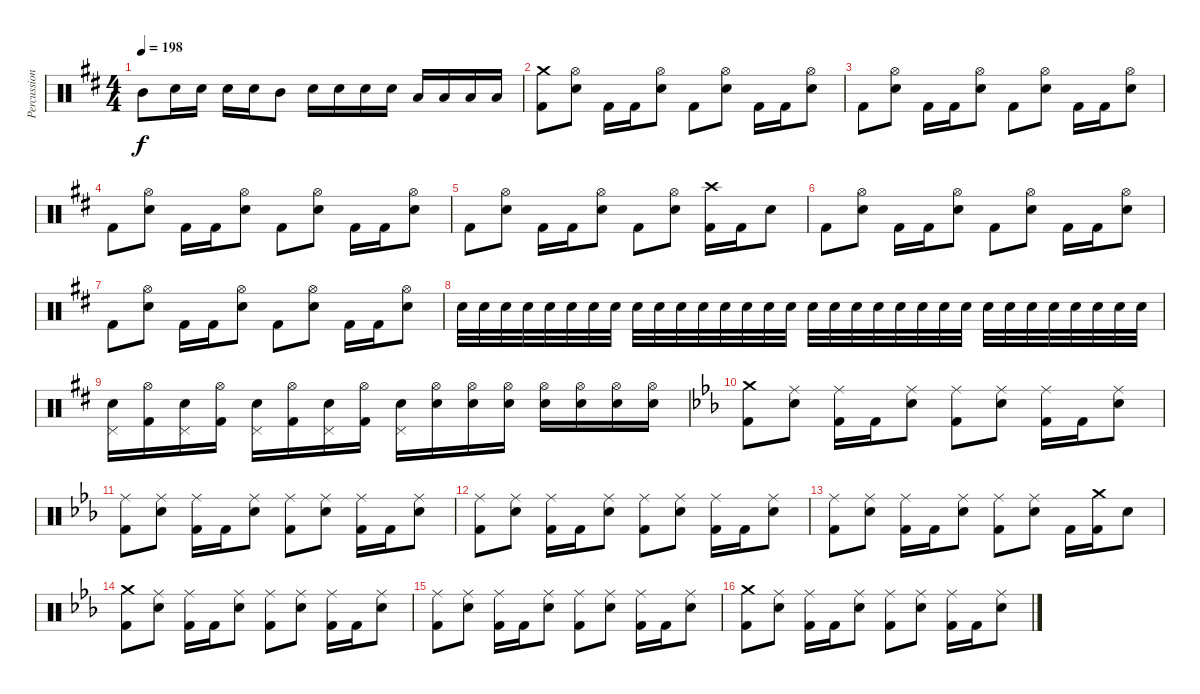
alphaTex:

\track ("Percussion" "Percussion") {instrument percussion}
\staff {score}
\articulation defaults
\ts (4 4)
\tempo 198
\clef neutral
\ks bminor "Mid Tom (hit)".8{dy f} "Snare (hit) 2".16 "Snare (hit) 2".16 "Snare (hit) 2".16 "Snare (hit) 2".16 "Mid Tom (hit)".8 "Snare (hit) 2".16 "Snare (hit) 2".16 "Snare (hit) 2".16 "Snare (hit) 2".16 "Low Tom (hit)".16 "Low Tom (hit)".16 "Low Tom (hit)".16 "Low Tom (hit)".16
|
("Crash medium (hit)" "Kick (hit) 2").8 ("Hi-Hat (open)" "Snare (hit) 2").8 "Kick (hit) 2".16 "Kick (hit) 2".16 ("Hi-Hat (open)" "Snare (hit) 2").8 "Kick (hit) 2".8 ("Hi-Hat (open)" "Snare (hit) 2").8 "Kick (hit) 2".16 "Kick (hit) 2".16 ("Hi-Hat (open)" "Snare (hit) 2").8 |
"Kick (hit) 2".8 ("Hi-Hat (open)" "Snare (hit) 2").8 "Kick (hit) 2".16 "Kick (hit) 2".16 ("Hi-Hat (open)" "Snare (hit) 2").8 "Kick (hit) 2".8 ("Hi-Hat (open)" "Snare (hit) 2").8 "Kick (hit) 2".16 "Kick (hit) 2".16 ("Hi-Hat (open)" "Snare (hit) 2").8 |
"Kick (hit) 2".8 ("Hi-Hat (open)" "Snare (hit) 2").8 "Kick (hit) 2".16 "Kick (hit) 2".16 ("Hi-Hat (open)" "Snare (hit) 2").8 "Kick (hit) 2".8 ("Hi-Hat (open)" "Snare (hit) 2").8 "Kick (hit) 2".16 "Kick (hit) 2".16 ("Hi-Hat (open)" "Snare (hit) 2").8 |
"Kick (hit) 2".8 ("Hi-Hat (open)" "Snare (hit) 2").8 "Kick (hit) 2".16 "Kick (hit) 2".16 ("Hi-Hat (open)" "Snare (hit) 2").8 "Kick (hit) 2".8 ("Hi-Hat (open)" "Snare (hit) 2").8 ("Crash high (hit)" "Kick (hit) 2").16 "Kick (hit) 2".16 "Snare (hit) 2".8 |
"Kick (hit) 2".8 ("Hi-Hat (open)" "Snare (hit) 2").8 "Kick (hit) 2".16 "Kick (hit) 2".16 ("Hi-Hat (open)" "Snare (hit) 2").8 "Kick (hit) 2".8 ("Hi-Hat (open)" "Snare (hit) 2").8 "Kick (hit) 2".16 "Kick (hit) 2".16 ("Hi-Hat (open)" "Snare (hit) 2").8 |
"Kick (hit) 2".8 ("Hi-Hat (open)" "Snare (hit) 2").8 "Kick (hit) 2".16 "Kick (hit) 2".16 ("Hi-Hat (open)" "Snare (hit) 2").8 "Kick (hit) 2".8 ("Hi-Hat (open)" "Snare (hit) 2").8 "Kick (hit) 2".16 "Kick (hit) 2".16 ("Hi-Hat (open)" "Snare (hit) 2").8 |
"Snare (hit) 2".32 "Snare (hit) 2".32 "Snare (hit) 2".32 "Snare (hit) 2".32 "Snare (hit) 2".32 "Snare (hit) 2".32 "Snare (hit) 2".32 "Snare (hit) 2".32 "Snare (hit) 2".32 "Snare (hit) 2".32 "Snare (hit) 2".32 "Snare (hit) 2".32 "Snare (hit) 2".32 "Snare (hit) 2".32 "Snare (hit) 2".32 "Snare (hit) 2".32 "Snare (hit) 2".32 "Snare (hit) 2".32 "Snare (hit) 2".32 "Snare (hit) 2".32 "Snare (hit) 2".32 "Snare (hit) 2".32 "Snare (hit) 2".32 "Snare (hit) 2".32 "Snare (hit) 2".32 "Snare (hit) 2".32 "Snare (hit) 2".32 "Snare (hit) 2".32 "Snare (hit) 2".32 "Snare (hit) 2".32 "Snare (hit) 2".32 "Snare (hit) 2".32 |
("Pedal Hi-Hat (hit)" "Snare (hit) 2").16 ("Hi-Hat (open)" "Kick (hit) 2").16 ("Pedal Hi-Hat (hit)" "Snare (hit) 2").16 ("Hi-Hat (open)" "Kick (hit) 2").16 ("Pedal Hi-Hat (hit)" "Snare (hit) 2").16 ("Hi-Hat (open)" "Kick (hit) 2").16 ("Pedal Hi-Hat (hit)" "Snare (hit) 2").16 ("Hi-Hat (open)" "Kick (hit) 2").16 ("Pedal Hi-Hat (hit)" "Snare (hit) 2").16 ("Hi-Hat (open)" "Snare (hit) 2").16 ("Hi-Hat (open)" "Snare (hit) 2").16 ("Hi-Hat (open)" "Snare (hit) 2").16 ("Hi-Hat (open)" "Snare (hit) 2").16 ("Hi-Hat (open)" "Snare (hit) 2").16 ("Hi-Hat (open)" "Snare (hit) 2").16 ("Hi-Hat (open)" "Snare (hit) 2").16 |
\ks cminor
("Crash medium (hit)" "Kick (hit) 2").8 ("Ride (middle)" "Snare (hit) 2").8 ("Ride (middle)" "Kick (hit) 2").16 "Kick (hit) 2".16 ("Ride (middle)" "Snare (hit) 2").8 ("Ride (middle)" "Kick (hit) 2").8 ("Ride (middle)" "Snare (hit) 2").8 ("Ride (middle)" "Kick (hit) 2").16 "Kick (hit) 2".16 ("Ride (middle)" "Snare (hit) 2").8 |
("Ride (middle)" "Kick (hit) 2").8 ("Ride (middle)" "Snare (hit) 2").8 ("Ride (middle)" "Kick (hit) 2").16 "Kick (hit) 2".16 ("Ride (middle)" "Snare (hit) 2").8 ("Ride (middle)" "Kick (hit) 2").8 ("Ride (middle)" "Snare (hit) 2").8 ("Ride (middle)" "Kick (hit) 2").16 "Kick (hit) 2".16 ("Ride (middle)" "Snare (hit) 2").8 |
("Ride (middle)" "Kick (hit) 2").8 ("Ride (middle)" "Snare (hit) 2").8 ("Ride (middle)" "Kick (hit) 2").16 "Kick (hit) 2".16 ("Ride (middle)" "Snare (hit) 2").8 ("Ride (middle)" "Kick (hit) 2").8 ("Ride (middle)" "Snare (hit) 2").8 ("Ride (middle)" "Kick (hit) 2").16 "Kick (hit) 2".16 ("Ride (middle)" "Snare (hit) 2").8 |
("Ride (middle)" "Kick (hit) 2").8 ("Ride (middle)" "Snare (hit) 2").8 ("Ride (middle)" "Kick (hit) 2").16 "Kick (hit) 2".16 ("Ride (middle)" "Snare (hit) 2").8 ("Ride (middle)" "Kick (hit) 2").8 ("Ride (middle)" "Snare (hit) 2").8 "Kick (hit) 2".16 ("Crash medium (hit)" "Kick (hit) 2").16 "Snare (hit) 2".8 |
("Crash medium (hit)" "Kick (hit) 2").8 ("Ride (middle)" "Snare (hit) 2").8 ("Ride (middle)" "Kick (hit) 2").16 "Kick (hit) 2".16 ("Ride (middle)" "Snare (hit) 2").8 ("Ride (middle)" "Kick (hit) 2").8 ("Ride (middle)" "Snare (hit) 2").8 ("Ride (middle)" "Kick (hit) 2").16 "Kick (hit) 2".16 ("Ride (middle)" "Snare (hit) 2").8 |
("Ride (middle)" "Kick (hit) 2").8 ("Ride (middle)" "Snare (hit) 2").8 ("Ride (middle)" "Kick (hit) 2").16 "Kick (hit) 2".16 ("Ride (middle)" "Snare (hit) 2").8 ("Ride (middle)" "Kick (hit) 2").8 ("Ride (middle)" "Snare (hit) 2").8 ("Ride (middle)" "Kick (hit) 2").16 "Kick (hit) 2".16 ("Ride (middle)" "Snare (hit) 2").8 |
("Crash medium (hit)" "Kick (hit) 2").8 ("Ride (middle)" "Snare (hit) 2").8 ("Ride (middle)" "Kick (hit) 2").16 "Kick (hit) 2".16 ("Ride (middle)" "Snare (hit) 2").8 ("Ride (middle)" "Kick (hit) 2").8 ("Ride (middle)" "Snare (hit) 2").8 ("Ride (middle)" "Kick (hit) 2").16 "Kick (hit) 2".16 ("Ride (middle)" "Snare (hit) 2").8
